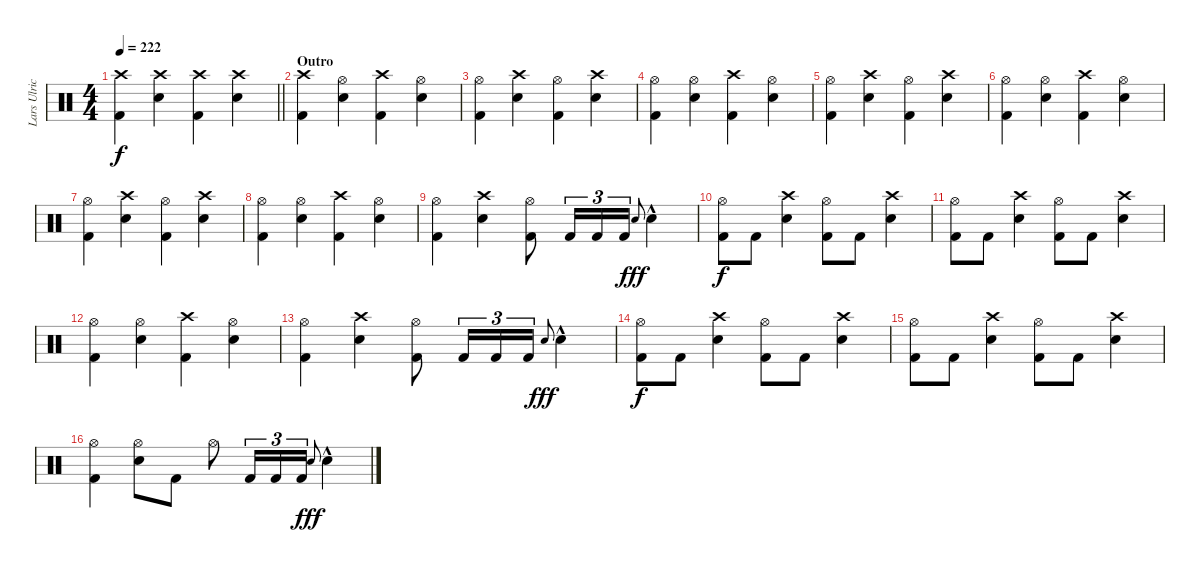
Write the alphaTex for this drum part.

\track ("Lars Ulrich" "Lars Ulric") {instrument percussion}
\staff {score}
\articulation defaults
\ts (4 4)
\tempo 222
\clef neutral
\barLineRight lightlight
\ks c
("Crash high (hit)" "Kick (hit) 2").4{dy f} ("Crash high (hit)" "Electric Snare (hit)").4 ("Crash high (hit)" "Kick (hit) 2").4 ("Crash high (hit)" "Electric Snare (hit)").4 |
\section ("" "Outro")
("Crash high (hit)" "Kick (hit) 2").4 ("Hi-Hat (open)" "Electric Snare (hit)").4 ("Crash high (hit)" "Kick (hit) 2").4 ("Hi-Hat (open)" "Electric Snare (hit)").4 |
("Hi-Hat (open)" "Kick (hit) 2").4 ("Crash high (hit)" "Electric Snare (hit)").4 ("Hi-Hat (open)" "Kick (hit) 2").4 ("Crash high (hit)" "Electric Snare (hit)").4 |
("Hi-Hat (open)" "Kick (hit) 2").4 ("Hi-Hat (open)" "Electric Snare (hit)").4 ("Crash high (hit)" "Kick (hit) 2").4 ("Hi-Hat (open)" "Electric Snare (hit)").4 |
("Hi-Hat (open)" "Kick (hit) 2").4 ("Crash high (hit)" "Electric Snare (hit)").4 ("Hi-Hat (open)" "Kick (hit) 2").4 ("Crash high (hit)" "Electric Snare (hit)").4 |
("Hi-Hat (open)" "Kick (hit) 2").4 ("Hi-Hat (open)" "Electric Snare (hit)").4 ("Crash high (hit)" "Kick (hit) 2").4 ("Hi-Hat (open)" "Electric Snare (hit)").4 |
("Hi-Hat (open)" "Kick (hit) 2").4 ("Crash high (hit)" "Electric Snare (hit)").4 ("Hi-Hat (open)" "Kick (hit) 2").4 ("Crash high (hit)" "Electric Snare (hit)").4 |
("Hi-Hat (open)" "Kick (hit) 2").4 ("Hi-Hat (open)" "Electric Snare (hit)").4 ("Crash high (hit)" "Kick (hit) 2").4 ("Hi-Hat (open)" "Electric Snare (hit)").4 |
("Hi-Hat (open)" "Kick (hit) 2").4 ("Crash high (hit)" "Electric Snare (hit)").4 ("Hi-Hat (open)" "Kick (hit) 2").8 "Kick (hit) 2".16{tu (3 2)} "Kick (hit) 2".16{tu (3 2)} "Kick (hit) 2".16{tu (3 2)} "Electric Snare (hit)".8{gr onbeat dy fff} "Electric Snare (hit)"{hac}.4 |
("Hi-Hat (open)" "Kick (hit) 2").8{dy f} "Kick (hit) 2".8 ("Crash high (hit)" "Electric Snare (hit)").4 ("Hi-Hat (open)" "Kick (hit) 2").8 "Kick (hit) 2".8 ("Crash high (hit)" "Electric Snare (hit)").4 |
("Hi-Hat (open)" "Kick (hit) 2").8 "Kick (hit) 2".8 ("Crash high (hit)" "Electric Snare (hit)").4 ("Hi-Hat (open)" "Kick (hit) 2").8 "Kick (hit) 2".8 ("Crash high (hit)" "Electric Snare (hit)").4 |
("Hi-Hat (open)" "Kick (hit) 2").4 ("Hi-Hat (open)" "Electric Snare (hit)").4 ("Crash high (hit)" "Kick (hit) 2").4 ("Hi-Hat (open)" "Electric Snare (hit)").4 |
("Hi-Hat (open)" "Kick (hit) 2").4 ("Crash high (hit)" "Electric Snare (hit)").4 ("Hi-Hat (open)" "Kick (hit) 2").8 "Kick (hit) 2".16{tu (3 2)} "Kick (hit) 2".16{tu (3 2)} "Kick (hit) 2".16{tu (3 2)} "Electric Snare (hit)".8{gr onbeat dy fff} "Electric Snare (hit)"{hac}.4 |
("Hi-Hat (open)" "Kick (hit) 2").8{dy f} "Kick (hit) 2".8 ("Crash high (hit)" "Electric Snare (hit)").4 ("Hi-Hat (open)" "Kick (hit) 2").8 "Kick (hit) 2".8 ("Crash high (hit)" "Electric Snare (hit)").4 |
("Hi-Hat (open)" "Kick (hit) 2").8 "Kick (hit) 2".8 ("Crash high (hit)" "Electric Snare (hit)").4 ("Hi-Hat (open)" "Kick (hit) 2").8 "Kick (hit) 2".8 ("Crash high (hit)" "Electric Snare (hit)").4 |
("Hi-Hat (open)" "Kick (hit) 2").4 ("Hi-Hat (open)" "Electric Snare (hit)").8 "Kick (hit) 2".8 "Hi-Hat (open)".8 "Kick (hit) 2".16{tu (3 2)} "Kick (hit) 2".16{tu (3 2)} "Kick (hit) 2".16{tu (3 2)} "Electric Snare (hit)".8{gr onbeat dy fff} "Electric Snare (hit)"{hac}.4
